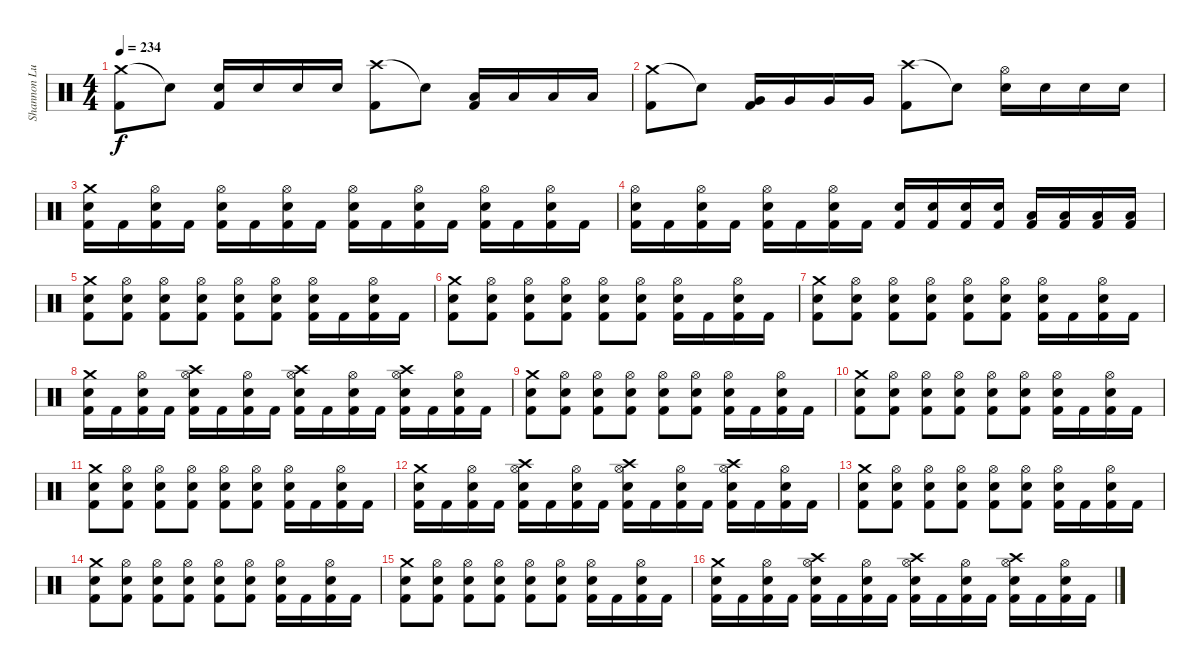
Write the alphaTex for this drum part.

\track ("Shannon Lucas (Drums)" "Shannon Lu") {instrument percussion}
\staff {score}
\articulation defaults
\ts (4 4)
\tempo 234
\clef neutral
\ks c
("Crash medium (hit)" "Kick (hit) 2").8{dy f} "Snare (hit)"{t}.8 ("Electric Snare (hit)" "Kick (hit) 2").16 "Electric Snare (hit)".16 "Electric Snare (hit)".16 "Electric Snare (hit)".16 ("Crash high (hit)" "Kick (hit) 2").8 "Snare (hit)"{t}.8 ("Low Tom (hit)" "Kick (hit) 2").16 "Low Tom (hit)".16 "Low Tom (hit)".16 "Low Tom (hit)".16 |
("Crash medium (hit)" "Kick (hit) 2").8 "Snare (hit)"{t}.8 ("Very Low Tom (hit)" "Kick (hit) 2").16 "Very Low Tom (hit)".16 "Very Low Tom (hit)".16 "Very Low Tom (hit)".16 ("Crash high (hit)" "Kick (hit) 2").8 "Snare (hit)"{t}.8 ("Electric Snare (hit)" "Hi-Hat (open)").16 "Electric Snare (hit)".16 "Electric Snare (hit)".16 "Electric Snare (hit)".16 |
("Crash medium (hit)" "Electric Snare (hit)" "Kick (hit) 2").16 "Kick (hit) 2".16 ("Hi-Hat (open)" "Electric Snare (hit)" "Kick (hit) 2").16 "Kick (hit) 2".16 ("Hi-Hat (open)" "Electric Snare (hit)" "Kick (hit) 2").16 "Kick (hit) 2".16 ("Hi-Hat (open)" "Electric Snare (hit)" "Kick (hit) 2").16 "Kick (hit) 2".16 ("Hi-Hat (open)" "Electric Snare (hit)" "Kick (hit) 2").16 "Kick (hit) 2".16 ("Hi-Hat (open)" "Electric Snare (hit)" "Kick (hit) 2").16 "Kick (hit) 2".16 ("Hi-Hat (open)" "Electric Snare (hit)" "Kick (hit) 2").16 "Kick (hit) 2".16 ("Hi-Hat (open)" "Electric Snare (hit)" "Kick (hit) 2").16 "Kick (hit) 2".16 |
("Hi-Hat (open)" "Electric Snare (hit)" "Kick (hit) 2").16 "Kick (hit) 2".16 ("Hi-Hat (open)" "Electric Snare (hit)" "Kick (hit) 2").16 "Kick (hit) 2".16 ("Hi-Hat (open)" "Electric Snare (hit)" "Kick (hit) 2").16 "Kick (hit) 2".16 ("Hi-Hat (open)" "Electric Snare (hit)" "Kick (hit) 2").16 "Kick (hit) 2".16 ("Electric Snare (hit)" "Kick (hit) 2").16 ("Electric Snare (hit)" "Kick (hit) 2").16 ("Electric Snare (hit)" "Kick (hit) 2").16 ("Electric Snare (hit)" "Kick (hit) 2").16 ("Low Tom (hit)" "Kick (hit) 2").16 ("Low Tom (hit)" "Kick (hit) 2").16 ("Low Tom (hit)" "Kick (hit) 2").16 ("Low Tom (hit)" "Kick (hit) 2").16 |
("Crash medium (hit)" "Electric Snare (hit)" "Kick (hit) 2").8 ("Hi-Hat (open)" "Electric Snare (hit)" "Kick (hit) 2").8 ("Hi-Hat (open)" "Electric Snare (hit)" "Kick (hit) 2").8 ("Hi-Hat (open)" "Electric Snare (hit)" "Kick (hit) 2").8 ("Hi-Hat (open)" "Electric Snare (hit)" "Kick (hit) 2").8 ("Hi-Hat (open)" "Electric Snare (hit)" "Kick (hit) 2").8 ("Hi-Hat (open)" "Electric Snare (hit)" "Kick (hit) 2").16 "Kick (hit) 2".16 ("Hi-Hat (open)" "Electric Snare (hit)" "Kick (hit) 2").16 "Kick (hit) 2".16 |
("Crash medium (hit)" "Electric Snare (hit)" "Kick (hit) 2").8 ("Hi-Hat (open)" "Electric Snare (hit)" "Kick (hit) 2").8 ("Hi-Hat (open)" "Electric Snare (hit)" "Kick (hit) 2").8 ("Hi-Hat (open)" "Electric Snare (hit)" "Kick (hit) 2").8 ("Hi-Hat (open)" "Electric Snare (hit)" "Kick (hit) 2").8 ("Hi-Hat (open)" "Electric Snare (hit)" "Kick (hit) 2").8 ("Hi-Hat (open)" "Electric Snare (hit)" "Kick (hit) 2").16 "Kick (hit) 2".16 ("Hi-Hat (open)" "Electric Snare (hit)" "Kick (hit) 2").16 "Kick (hit) 2".16 |
("Crash medium (hit)" "Electric Snare (hit)" "Kick (hit) 2").8 ("Hi-Hat (open)" "Electric Snare (hit)" "Kick (hit) 2").8 ("Hi-Hat (open)" "Electric Snare (hit)" "Kick (hit) 2").8 ("Hi-Hat (open)" "Electric Snare (hit)" "Kick (hit) 2").8 ("Hi-Hat (open)" "Electric Snare (hit)" "Kick (hit) 2").8 ("Hi-Hat (open)" "Electric Snare (hit)" "Kick (hit) 2").8 ("Hi-Hat (open)" "Electric Snare (hit)" "Kick (hit) 2").16 "Kick (hit) 2".16 ("Hi-Hat (open)" "Electric Snare (hit)" "Kick (hit) 2").16 "Kick (hit) 2".16 |
("Crash medium (hit)" "Electric Snare (hit)" "Kick (hit) 2").16 "Kick (hit) 2".16 ("Hi-Hat (open)" "Electric Snare (hit)" "Kick (hit) 2").16 "Kick (hit) 2".16 ("Crash high (hit)" "Hi-Hat (open)" "Electric Snare (hit)" "Kick (hit) 2").16 "Kick (hit) 2".16 ("Hi-Hat (open)" "Electric Snare (hit)" "Kick (hit) 2").16 "Kick (hit) 2".16 ("Crash high (hit)" "Hi-Hat (open)" "Electric Snare (hit)" "Kick (hit) 2").16 "Kick (hit) 2".16 ("Hi-Hat (open)" "Electric Snare (hit)" "Kick (hit) 2").16 "Kick (hit) 2".16 ("Crash high (hit)" "Hi-Hat (open)" "Electric Snare (hit)" "Kick (hit) 2").16 "Kick (hit) 2".16 ("Hi-Hat (open)" "Electric Snare (hit)" "Kick (hit) 2").16 "Kick (hit) 2".16 |
("Crash medium (hit)" "Electric Snare (hit)" "Kick (hit) 2").8 ("Hi-Hat (open)" "Electric Snare (hit)" "Kick (hit) 2").8 ("Hi-Hat (open)" "Electric Snare (hit)" "Kick (hit) 2").8 ("Hi-Hat (open)" "Electric Snare (hit)" "Kick (hit) 2").8 ("Hi-Hat (open)" "Electric Snare (hit)" "Kick (hit) 2").8 ("Hi-Hat (open)" "Electric Snare (hit)" "Kick (hit) 2").8 ("Hi-Hat (open)" "Electric Snare (hit)" "Kick (hit) 2").16 "Kick (hit) 2".16 ("Hi-Hat (open)" "Electric Snare (hit)" "Kick (hit) 2").16 "Kick (hit) 2".16 |
("Crash medium (hit)" "Electric Snare (hit)" "Kick (hit) 2").8 ("Hi-Hat (open)" "Electric Snare (hit)" "Kick (hit) 2").8 ("Hi-Hat (open)" "Electric Snare (hit)" "Kick (hit) 2").8 ("Hi-Hat (open)" "Electric Snare (hit)" "Kick (hit) 2").8 ("Hi-Hat (open)" "Electric Snare (hit)" "Kick (hit) 2").8 ("Hi-Hat (open)" "Electric Snare (hit)" "Kick (hit) 2").8 ("Hi-Hat (open)" "Electric Snare (hit)" "Kick (hit) 2").16 "Kick (hit) 2".16 ("Hi-Hat (open)" "Electric Snare (hit)" "Kick (hit) 2").16 "Kick (hit) 2".16 |
("Crash medium (hit)" "Electric Snare (hit)" "Kick (hit) 2").8 ("Hi-Hat (open)" "Electric Snare (hit)" "Kick (hit) 2").8 ("Hi-Hat (open)" "Electric Snare (hit)" "Kick (hit) 2").8 ("Hi-Hat (open)" "Electric Snare (hit)" "Kick (hit) 2").8 ("Hi-Hat (open)" "Electric Snare (hit)" "Kick (hit) 2").8 ("Hi-Hat (open)" "Electric Snare (hit)" "Kick (hit) 2").8 ("Hi-Hat (open)" "Electric Snare (hit)" "Kick (hit) 2").16 "Kick (hit) 2".16 ("Hi-Hat (open)" "Electric Snare (hit)" "Kick (hit) 2").16 "Kick (hit) 2".16 |
("Crash medium (hit)" "Electric Snare (hit)" "Kick (hit) 2").16 "Kick (hit) 2".16 ("Hi-Hat (open)" "Electric Snare (hit)" "Kick (hit) 2").16 "Kick (hit) 2".16 ("Crash high (hit)" "Hi-Hat (open)" "Electric Snare (hit)" "Kick (hit) 2").16 "Kick (hit) 2".16 ("Hi-Hat (open)" "Electric Snare (hit)" "Kick (hit) 2").16 "Kick (hit) 2".16 ("Crash high (hit)" "Hi-Hat (open)" "Electric Snare (hit)" "Kick (hit) 2").16 "Kick (hit) 2".16 ("Hi-Hat (open)" "Electric Snare (hit)" "Kick (hit) 2").16 "Kick (hit) 2".16 ("Crash high (hit)" "Hi-Hat (open)" "Electric Snare (hit)" "Kick (hit) 2").16 "Kick (hit) 2".16 ("Hi-Hat (open)" "Electric Snare (hit)" "Kick (hit) 2").16 "Kick (hit) 2".16 |
("Crash medium (hit)" "Electric Snare (hit)" "Kick (hit) 2").8 ("Hi-Hat (open)" "Electric Snare (hit)" "Kick (hit) 2").8 ("Hi-Hat (open)" "Electric Snare (hit)" "Kick (hit) 2").8 ("Hi-Hat (open)" "Electric Snare (hit)" "Kick (hit) 2").8 ("Hi-Hat (open)" "Electric Snare (hit)" "Kick (hit) 2").8 ("Hi-Hat (open)" "Electric Snare (hit)" "Kick (hit) 2").8 ("Hi-Hat (open)" "Electric Snare (hit)" "Kick (hit) 2").16 "Kick (hit) 2".16 ("Hi-Hat (open)" "Electric Snare (hit)" "Kick (hit) 2").16 "Kick (hit) 2".16 |
("Crash medium (hit)" "Electric Snare (hit)" "Kick (hit) 2").8 ("Hi-Hat (open)" "Electric Snare (hit)" "Kick (hit) 2").8 ("Hi-Hat (open)" "Electric Snare (hit)" "Kick (hit) 2").8 ("Hi-Hat (open)" "Electric Snare (hit)" "Kick (hit) 2").8 ("Hi-Hat (open)" "Electric Snare (hit)" "Kick (hit) 2").8 ("Hi-Hat (open)" "Electric Snare (hit)" "Kick (hit) 2").8 ("Hi-Hat (open)" "Electric Snare (hit)" "Kick (hit) 2").16 "Kick (hit) 2".16 ("Hi-Hat (open)" "Electric Snare (hit)" "Kick (hit) 2").16 "Kick (hit) 2".16 |
("Crash medium (hit)" "Electric Snare (hit)" "Kick (hit) 2").8 ("Hi-Hat (open)" "Electric Snare (hit)" "Kick (hit) 2").8 ("Hi-Hat (open)" "Electric Snare (hit)" "Kick (hit) 2").8 ("Hi-Hat (open)" "Electric Snare (hit)" "Kick (hit) 2").8 ("Hi-Hat (open)" "Electric Snare (hit)" "Kick (hit) 2").8 ("Hi-Hat (open)" "Electric Snare (hit)" "Kick (hit) 2").8 ("Hi-Hat (open)" "Electric Snare (hit)" "Kick (hit) 2").16 "Kick (hit) 2".16 ("Hi-Hat (open)" "Electric Snare (hit)" "Kick (hit) 2").16 "Kick (hit) 2".16 |
("Crash medium (hit)" "Electric Snare (hit)" "Kick (hit) 2").16 "Kick (hit) 2".16 ("Hi-Hat (open)" "Electric Snare (hit)" "Kick (hit) 2").16 "Kick (hit) 2".16 ("Crash high (hit)" "Hi-Hat (open)" "Electric Snare (hit)" "Kick (hit) 2").16 "Kick (hit) 2".16 ("Hi-Hat (open)" "Electric Snare (hit)" "Kick (hit) 2").16 "Kick (hit) 2".16 ("Crash high (hit)" "Hi-Hat (open)" "Electric Snare (hit)" "Kick (hit) 2").16 "Kick (hit) 2".16 ("Hi-Hat (open)" "Electric Snare (hit)" "Kick (hit) 2").16 "Kick (hit) 2".16 ("Crash high (hit)" "Hi-Hat (open)" "Electric Snare (hit)" "Kick (hit) 2").16 "Kick (hit) 2".16 ("Hi-Hat (open)" "Electric Snare (hit)" "Kick (hit) 2").16 "Kick (hit) 2".16
